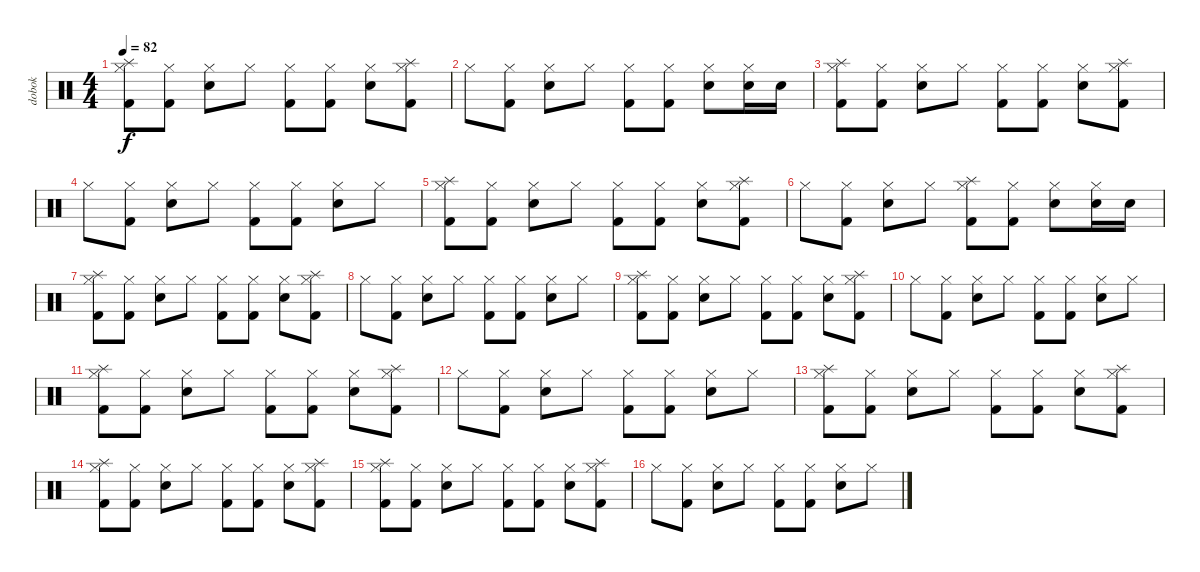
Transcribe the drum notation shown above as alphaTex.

\track ("dobok" "dobok") {instrument percussion}
\staff {score}
\articulation defaults
\ts (4 4)
\tempo 82
\clef neutral
\ks c
("Splash (hit)" "Hi-Hat (closed)" "Kick (hit) 2").8{dy f} ("Hi-Hat (closed)" "Kick (hit) 2").8 ("Hi-Hat (closed)" "Snare (hit) 2").8 "Hi-Hat (closed)".8 ("Hi-Hat (closed)" "Kick (hit) 2").8 ("Hi-Hat (closed)" "Kick (hit) 2").8 ("Hi-Hat (closed)" "Snare (hit) 2").8 ("Splash (hit)" "Hi-Hat (closed)" "Kick (hit) 2").8 |
"Hi-Hat (closed)".8 ("Hi-Hat (closed)" "Kick (hit) 2").8 ("Hi-Hat (closed)" "Snare (hit) 2").8 "Hi-Hat (closed)".8 ("Hi-Hat (closed)" "Kick (hit) 2").8 ("Hi-Hat (closed)" "Kick (hit) 2").8 ("Hi-Hat (closed)" "Snare (hit) 2").8 ("Hi-Hat (closed)" "Snare (hit) 2").16 "Snare (hit) 2".16 |
("Splash (hit)" "Hi-Hat (closed)" "Kick (hit) 2").8 ("Hi-Hat (closed)" "Kick (hit) 2").8 ("Hi-Hat (closed)" "Snare (hit) 2").8 "Hi-Hat (closed)".8 ("Hi-Hat (closed)" "Kick (hit) 2").8 ("Hi-Hat (closed)" "Kick (hit) 2").8 ("Hi-Hat (closed)" "Snare (hit) 2").8 ("Splash (hit)" "Hi-Hat (closed)" "Kick (hit) 2").8 |
"Hi-Hat (closed)".8 ("Hi-Hat (closed)" "Kick (hit) 2").8 ("Hi-Hat (closed)" "Snare (hit) 2").8 "Hi-Hat (closed)".8 ("Hi-Hat (closed)" "Kick (hit) 2").8 ("Hi-Hat (closed)" "Kick (hit) 2").8 ("Hi-Hat (closed)" "Snare (hit) 2").8 "Hi-Hat (closed)".8 |
("Splash (hit)" "Hi-Hat (closed)" "Kick (hit) 2").8 ("Hi-Hat (closed)" "Kick (hit) 2").8 ("Hi-Hat (closed)" "Snare (hit) 2").8 "Hi-Hat (closed)".8 ("Hi-Hat (closed)" "Kick (hit) 2").8 ("Hi-Hat (closed)" "Kick (hit) 2").8 ("Hi-Hat (closed)" "Snare (hit) 2").8 ("Splash (hit)" "Hi-Hat (closed)" "Kick (hit) 2").8 |
"Hi-Hat (closed)".8 ("Hi-Hat (closed)" "Kick (hit) 2").8 ("Hi-Hat (closed)" "Snare (hit) 2").8 "Hi-Hat (closed)".8 ("Splash (hit)" "Hi-Hat (closed)" "Kick (hit) 2").8 ("Hi-Hat (closed)" "Kick (hit) 2").8 ("Hi-Hat (closed)" "Snare (hit) 2").8 ("Hi-Hat (closed)" "Snare (hit) 2").16 "Snare (hit) 2".16 |
("Splash (hit)" "Hi-Hat (closed)" "Kick (hit) 2").8 ("Hi-Hat (closed)" "Kick (hit) 2").8 ("Hi-Hat (closed)" "Snare (hit) 2").8 "Hi-Hat (closed)".8 ("Hi-Hat (closed)" "Kick (hit) 2").8 ("Hi-Hat (closed)" "Kick (hit) 2").8 ("Hi-Hat (closed)" "Snare (hit) 2").8 ("Splash (hit)" "Hi-Hat (closed)" "Kick (hit) 2").8 |
"Hi-Hat (closed)".8 ("Hi-Hat (closed)" "Kick (hit) 2").8 ("Hi-Hat (closed)" "Snare (hit) 2").8 "Hi-Hat (closed)".8 ("Hi-Hat (closed)" "Kick (hit) 2").8 ("Hi-Hat (closed)" "Kick (hit) 2").8 ("Hi-Hat (closed)" "Snare (hit) 2").8 "Hi-Hat (closed)".8 |
("Splash (hit)" "Hi-Hat (closed)" "Kick (hit) 2").8 ("Hi-Hat (closed)" "Kick (hit) 2").8 ("Hi-Hat (closed)" "Snare (hit) 2").8 "Hi-Hat (closed)".8 ("Hi-Hat (closed)" "Kick (hit) 2").8 ("Hi-Hat (closed)" "Kick (hit) 2").8 ("Hi-Hat (closed)" "Snare (hit) 2").8 ("Splash (hit)" "Hi-Hat (closed)" "Kick (hit) 2").8 |
"Hi-Hat (closed)".8 ("Hi-Hat (closed)" "Kick (hit) 2").8 ("Hi-Hat (closed)" "Snare (hit) 2").8 "Hi-Hat (closed)".8 ("Hi-Hat (closed)" "Kick (hit) 2").8 ("Hi-Hat (closed)" "Kick (hit) 2").8 ("Hi-Hat (closed)" "Snare (hit) 2").8 "Hi-Hat (closed)".8 |
("Splash (hit)" "Hi-Hat (closed)" "Kick (hit) 2").8 ("Hi-Hat (closed)" "Kick (hit) 2").8 ("Hi-Hat (closed)" "Snare (hit) 2").8 "Hi-Hat (closed)".8 ("Hi-Hat (closed)" "Kick (hit) 2").8 ("Hi-Hat (closed)" "Kick (hit) 2").8 ("Hi-Hat (closed)" "Snare (hit) 2").8 ("Splash (hit)" "Hi-Hat (closed)" "Kick (hit) 2").8 |
"Hi-Hat (closed)".8 ("Hi-Hat (closed)" "Kick (hit) 2").8 ("Hi-Hat (closed)" "Snare (hit) 2").8 "Hi-Hat (closed)".8 ("Hi-Hat (closed)" "Kick (hit) 2").8 ("Hi-Hat (closed)" "Kick (hit) 2").8 ("Hi-Hat (closed)" "Snare (hit) 2").8 "Hi-Hat (closed)".8 |
("Splash (hit)" "Hi-Hat (closed)" "Kick (hit) 2").8 ("Hi-Hat (closed)" "Kick (hit) 2").8 ("Hi-Hat (closed)" "Snare (hit) 2").8 "Hi-Hat (closed)".8 ("Hi-Hat (closed)" "Kick (hit) 2").8 ("Hi-Hat (closed)" "Kick (hit) 2").8 ("Hi-Hat (closed)" "Snare (hit) 2").8 ("Splash (hit)" "Hi-Hat (closed)" "Kick (hit) 2").8 |
("Splash (hit)" "Hi-Hat (closed)" "Kick (hit) 2").8 ("Hi-Hat (closed)" "Kick (hit) 2").8 ("Hi-Hat (closed)" "Snare (hit) 2").8 "Hi-Hat (closed)".8 ("Hi-Hat (closed)" "Kick (hit) 2").8 ("Hi-Hat (closed)" "Kick (hit) 2").8 ("Hi-Hat (closed)" "Snare (hit) 2").8 ("Splash (hit)" "Hi-Hat (closed)" "Kick (hit) 2").8 |
("Splash (hit)" "Hi-Hat (closed)" "Kick (hit) 2").8 ("Hi-Hat (closed)" "Kick (hit) 2").8 ("Hi-Hat (closed)" "Snare (hit) 2").8 "Hi-Hat (closed)".8 ("Hi-Hat (closed)" "Kick (hit) 2").8 ("Hi-Hat (closed)" "Kick (hit) 2").8 ("Hi-Hat (closed)" "Snare (hit) 2").8 ("Splash (hit)" "Hi-Hat (closed)" "Kick (hit) 2").8 |
"Hi-Hat (closed)".8 ("Hi-Hat (closed)" "Kick (hit) 2").8 ("Hi-Hat (closed)" "Snare (hit) 2").8 "Hi-Hat (closed)".8 ("Hi-Hat (closed)" "Kick (hit) 2").8 ("Hi-Hat (closed)" "Kick (hit) 2").8 ("Hi-Hat (closed)" "Snare (hit) 2").8 "Hi-Hat (closed)".8
